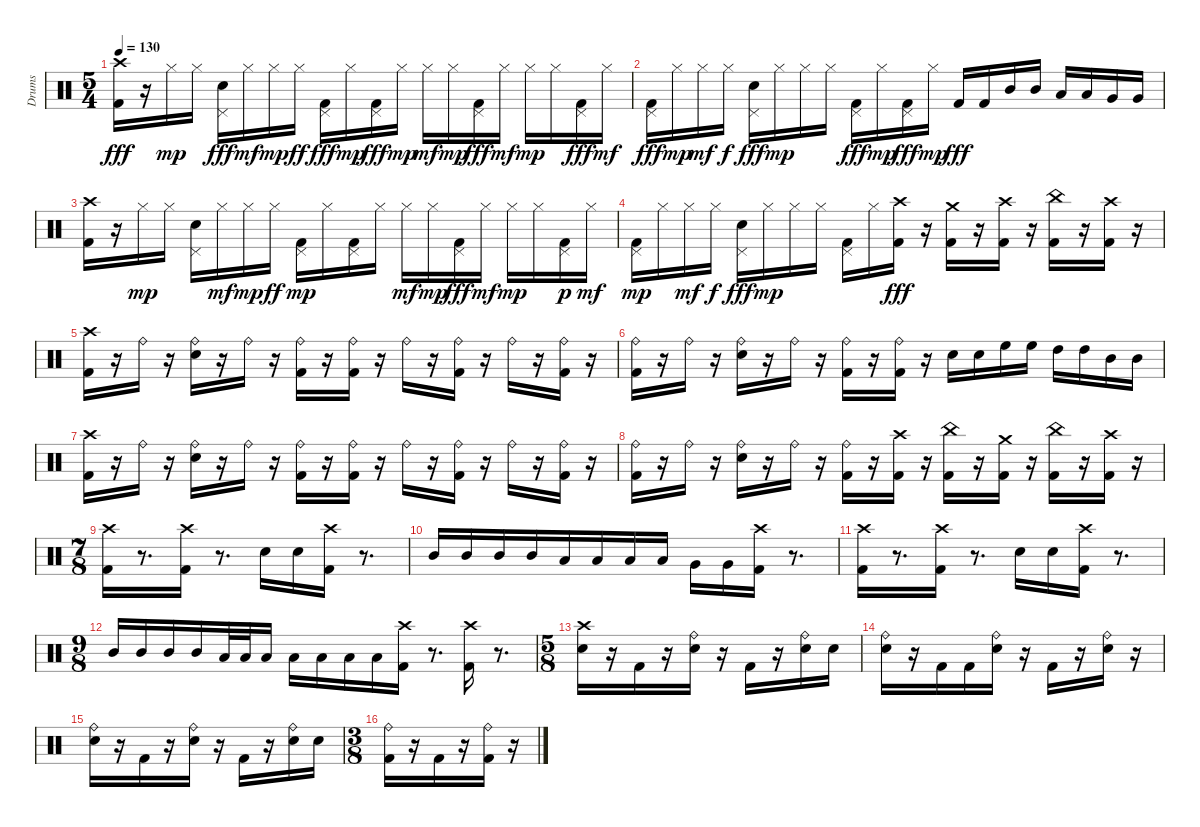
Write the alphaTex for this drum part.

\track ("Drums" "Drums") {instrument percussion}
\staff {score}
\articulation defaults
\ts (5 4)
\tempo 130
\clef neutral
\ks c
("Kick (hit) 2" "Crash high (hit)").16{dy fff} r.16 "Hi-Hat (closed)".16{dy mp} "Hi-Hat (closed)".16 ("Pedal Hi-Hat (hit)" "Electric Snare (hit)").16{dy fff} "Hi-Hat (closed)".16{dy mf} "Hi-Hat (closed)".16{dy mp} "Hi-Hat (closed)".16{dy ff} ("Pedal Hi-Hat (hit)" "Kick (hit) 2").16{dy fff} "Hi-Hat (closed)".16{dy mp} ("Pedal Hi-Hat (hit)" "Kick (hit) 2").16{dy fff} "Hi-Hat (closed)".16{dy mp} "Hi-Hat (closed)".16{dy mf} "Hi-Hat (closed)".16{dy mp} ("Pedal Hi-Hat (hit)" "Kick (hit) 2").16{dy fff} "Hi-Hat (closed)".16{dy mf} "Hi-Hat (closed)".16{dy mp} "Hi-Hat (closed)".16 ("Pedal Hi-Hat (hit)" "Kick (hit) 2").16{dy fff} "Hi-Hat (closed)".16{dy mf} |
("Pedal Hi-Hat (hit)" "Kick (hit) 2").16{dy fff} "Hi-Hat (closed)".16{dy mp} "Hi-Hat (closed)".16{dy mf} "Hi-Hat (closed)".16{dy f} ("Pedal Hi-Hat (hit)" "Electric Snare (hit)").16{dy fff} "Hi-Hat (closed)".16{dy mp} "Hi-Hat (closed)".16 "Hi-Hat (closed)".16 ("Pedal Hi-Hat (hit)" "Kick (hit) 2").16{dy fff} "Hi-Hat (closed)".16{dy mp} ("Pedal Hi-Hat (hit)" "Kick (hit) 2").16{dy fff} "Hi-Hat (closed)".16{dy mp} "Kick (hit) 2".16{dy fff} "Kick (hit) 2".16 "Mid Tom (hit)".16 "Mid Tom (hit)".16 "Low Tom (hit)".16 "Low Tom (hit)".16 "Very Low Tom (hit)".16 "Very Low Tom (hit)".16 |
("Crash high (hit)" "Kick (hit) 2").16 r.16 "Hi-Hat (closed)".16{dy mp} "Hi-Hat (closed)".16 ("Electric Snare (hit)" "Pedal Hi-Hat (hit)").16 "Hi-Hat (closed)".16{dy mf} "Hi-Hat (closed)".16{dy mp} "Hi-Hat (closed)".16{dy ff} ("Kick (hit) 2" "Pedal Hi-Hat (hit)").16{dy mp} "Hi-Hat (closed)".16 ("Kick (hit) 2" "Pedal Hi-Hat (hit)").16 "Hi-Hat (closed)".16 "Hi-Hat (closed)".16{dy mf} "Hi-Hat (closed)".16{dy mp} ("Kick (hit) 2" "Pedal Hi-Hat (hit)").16{dy fff} "Hi-Hat (closed)".16{dy mf} "Hi-Hat (closed)".16{dy mp} "Hi-Hat (closed)".16 ("Kick (hit) 2" "Pedal Hi-Hat (hit)").16{dy p} "Hi-Hat (closed)".16{dy mf} |
("Kick (hit) 2" "Pedal Hi-Hat (hit)").16{dy mp} "Hi-Hat (closed)".16 "Hi-Hat (closed)".16{dy mf} "Hi-Hat (closed)".16{dy f} ("Electric Snare (hit)" "Pedal Hi-Hat (hit)").16{dy fff} "Hi-Hat (closed)".16{dy mp} "Hi-Hat (closed)".16 "Hi-Hat (closed)".16 ("Kick (hit) 2" "Pedal Hi-Hat (hit)").16 "Hi-Hat (closed)".16 ("Crash high (hit)" "Kick (hit) 2").16{dy fff} r.16 ("Crash medium (hit)" "Kick (hit) 2").16 r.16 ("Crash high (hit)" "Kick (hit) 2").16 r.16 ("China (hit)" "Kick (hit) 2").16 r.16 ("Crash high (hit)" "Kick (hit) 2").16 r.16 |
("Crash high (hit)" "Kick (hit) 2").16 r.16 "Ride (bell)".16 r.16 ("Ride (bell)" "Electric Snare (hit)").16 r.16 "Ride (bell)".16 r.16 ("Ride (bell)" "Kick (hit) 2").16 r.16 ("Ride (bell)" "Kick (hit) 2").16 r.16 "Ride (bell)".16 r.16 ("Ride (bell)" "Kick (hit) 2").16 r.16 "Ride (bell)".16 r.16 ("Ride (bell)" "Kick (hit) 2").16 r.16 |
("Ride (bell)" "Kick (hit) 2").16 r.16 "Ride (bell)".16 r.16 ("Electric Snare (hit)" "Ride (bell)").16 r.16 "Ride (bell)".16 r.16 ("Kick (hit) 2" "Ride (bell)").16 r.16 ("Kick (hit) 2" "Ride (bell)").16 r.16 "Electric Snare (hit)".16 "Electric Snare (hit)".16 "High Floor Tom (hit)".16 "High Floor Tom (hit)".16 "High Tom (hit)".16 "High Tom (hit)".16 "Mid Tom (hit)".16 "Mid Tom (hit)".16 |
("Kick (hit) 2" "Crash high (hit)").16 r.16 "Ride (bell)".16 r.16 ("Electric Snare (hit)" "Ride (bell)").16 r.16 "Ride (bell)".16 r.16 ("Kick (hit) 2" "Ride (bell)").16 r.16 ("Kick (hit) 2" "Ride (bell)").16 r.16 "Ride (bell)".16 r.16 ("Kick (hit) 2" "Ride (bell)").16 r.16 "Ride (bell)".16 r.16 ("Kick (hit) 2" "Ride (bell)").16 r.16 |
("Kick (hit) 2" "Ride (bell)").16 r.16 "Ride (bell)".16 r.16 ("Ride (bell)" "Electric Snare (hit)").16 r.16 "Ride (bell)".16 r.16 ("Ride (bell)" "Kick (hit) 2").16 r.16 ("Crash high (hit)" "Kick (hit) 2").16 r.16 ("China (hit)" "Kick (hit) 2").16 r.16 ("Crash medium (hit)" "Kick (hit) 2").16 r.16 ("China (hit)" "Kick (hit) 2").16 r.16 ("Crash high (hit)" "Kick (hit) 2").16 r.16 |
\ts (7 8)
("Crash high (hit)" "Kick (hit) 2").16 r.8{d} ("Crash high (hit)" "Kick (hit) 2").16 r.8{d} "Electric Snare (hit)".16 "Electric Snare (hit)".16 ("Crash high (hit)" "Kick (hit) 2").16 r.8{d} |
"Mid Tom (hit)".16 "Mid Tom (hit)".16 "Mid Tom (hit)".16 "Mid Tom (hit)".16 "Low Tom (hit)".16 "Low Tom (hit)".16 "Low Tom (hit)".16 "Low Tom (hit)".16 "Very Low Tom (hit)".16 "Very Low Tom (hit)".16 ("Crash high (hit)" "Kick (hit) 2").16 r.8{d} |
("Crash high (hit)" "Kick (hit) 2").16 r.8{d} ("Crash high (hit)" "Kick (hit) 2").16 r.8{d} "Electric Snare (hit)".16 "Electric Snare (hit)".16 ("Crash high (hit)" "Kick (hit) 2").16 r.8{d} |
\ts (9 8)
"Mid Tom (hit)".16 "Mid Tom (hit)".16 "Mid Tom (hit)".16 "Mid Tom (hit)".16 "Low Tom (hit)".32 "Low Tom (hit)".32 "Low Tom (hit)".16 "Low Tom (hit)".16 "Low Tom (hit)".16 "Low Floor Tom (hit)".16 "Low Floor Tom (hit)".16 ("Crash high (hit)" "Kick (hit) 2").16 r.8{d} ("Crash high (hit)" "Kick (hit) 2").16 r.8{d} |
\ts (5 8)
("Electric Snare (hit)" "Crash high (hit)").16 r.16 "Kick (hit) 2".16 r.16 ("Electric Snare (hit)" "Ride (bell)").16 r.16 "Kick (hit) 2".16 r.16 ("Electric Snare (hit)" "Ride (bell)").16 "Electric Snare (hit)".16 |
("Electric Snare (hit)" "Ride (bell)").16 r.16 "Kick (hit) 2".16 "Kick (hit) 2".16 ("Electric Snare (hit)" "Ride (bell)").16 r.16 "Kick (hit) 2".16 r.16 ("Electric Snare (hit)" "Ride (bell)").16 r.16 |
("Electric Snare (hit)" "Ride (bell)").16 r.16 "Kick (hit) 2".16 r.16 ("Electric Snare (hit)" "Ride (bell)").16 r.16 "Kick (hit) 2".16 r.16 ("Electric Snare (hit)" "Ride (bell)").16 "Electric Snare (hit)".16 |
\ts (3 8)
("Kick (hit) 2" "Ride (bell)").16 r.16 "Kick (hit) 2".16 r.16 ("Kick (hit) 2" "Ride (bell)").16 r.16
